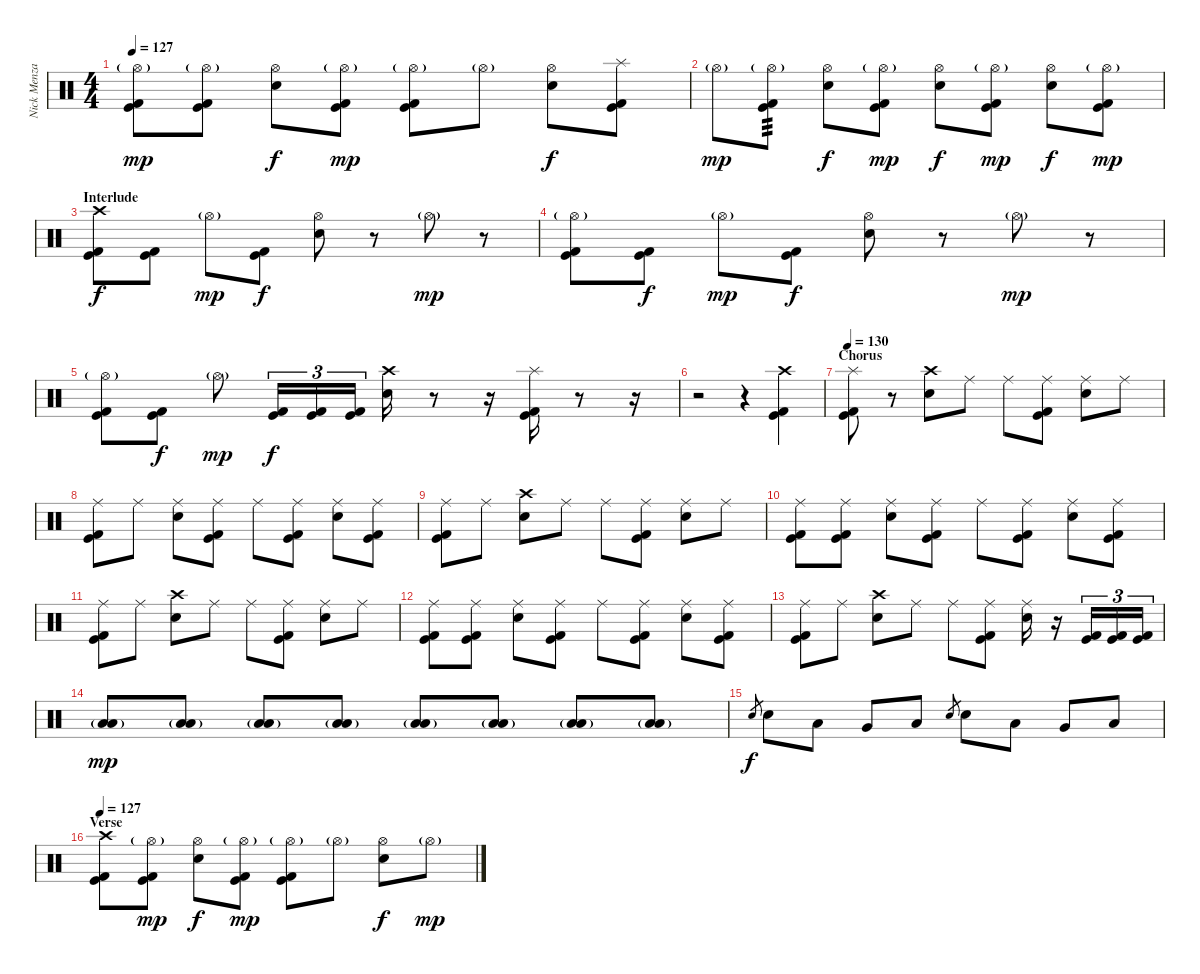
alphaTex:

\track ("Nick Menza (Drums)" "Nick Menza") {instrument percussion}
\staff {score}
\articulation defaults
\ts (4 4)
\tempo 127
\clef neutral
\ks c
("Hi-Hat (open)"{g} "Kick (hit)" "Kick (hit) 2").8{dy mp} ("Hi-Hat (open)"{g} "Kick (hit)" "Kick (hit) 2").8 ("Hi-Hat (open)" "Electric Snare (hit)").8{dy f} ("Hi-Hat (open)"{g} "Kick (hit)" "Kick (hit) 2").8{dy mp} ("Hi-Hat (open)"{g} "Kick (hit)" "Kick (hit) 2").8 "Hi-Hat (open)"{g}.8 ("Hi-Hat (open)" "Electric Snare (hit)").8{dy f} ("Splash (hit)" "Kick (hit)" "Kick (hit) 2").8 |
"Hi-Hat (open)"{g}.8{dy mp} ("Hi-Hat (open)"{g} "Kick (hit)" "Kick (hit) 2").8{tp 3} ("Hi-Hat (open)" "Electric Snare (hit)").8{dy f} ("Hi-Hat (open)"{g} "Kick (hit)" "Kick (hit) 2").8{dy mp} ("Hi-Hat (open)" "Electric Snare (hit)").8{dy f} ("Hi-Hat (open)"{g} "Kick (hit)" "Kick (hit) 2").8{dy mp} ("Hi-Hat (open)" "Electric Snare (hit)").8{dy f} ("Hi-Hat (open)"{g} "Kick (hit)" "Kick (hit) 2").8{dy mp} |
\section ("" "Interlude")
("Crash high (hit)" "Kick (hit)" "Kick (hit) 2").8{dy f} ("Kick (hit)" "Kick (hit) 2").8 "Hi-Hat (open)"{g}.8{dy mp} ("Kick (hit)" "Kick (hit) 2").8{dy f} ("Hi-Hat (open)" "Electric Snare (hit)").8 r.8 "Hi-Hat (open)"{g}.8{dy mp} r.8 |
("Hi-Hat (open)"{g} "Kick (hit)" "Kick (hit) 2").8 ("Kick (hit)" "Kick (hit) 2").8{dy f} "Hi-Hat (open)"{g}.8{dy mp} ("Kick (hit)" "Kick (hit) 2").8{dy f} ("Hi-Hat (open)" "Electric Snare (hit)").8 r.8 "Hi-Hat (open)"{g}.8{dy mp} r.8 |
("Hi-Hat (open)"{g} "Kick (hit)" "Kick (hit) 2").8 ("Kick (hit)" "Kick (hit) 2").8{dy f} "Hi-Hat (open)"{g}.8{dy mp} ("Kick (hit)" "Kick (hit) 2").16{tu (3 2) dy f} ("Kick (hit)" "Kick (hit) 2").16{tu (3 2)} ("Kick (hit)" "Kick (hit) 2").16{tu (3 2)} ("Crash high (hit)" "Electric Snare (hit)").16 r.8 r.16 ("Splash (hit)" "Kick (hit)" "Kick (hit) 2").16 r.8 r.16 |
r.2 r.4 ("Crash high (hit)" "Kick (hit)" "Kick (hit) 2").4 |
\section ("" "Chorus")
\tempo 130
("Splash (hit)" "Kick (hit)" "Kick (hit) 2").8 r.8 ("Crash high (hit)" "Electric Snare (hit)").8 "Ride (middle)".8 "Ride (middle)".8 ("Ride (middle)" "Kick (hit)" "Kick (hit) 2").8 ("Ride (middle)" "Electric Snare (hit)").8 "Ride (middle)".8 |
("Ride (middle)" "Kick (hit)" "Kick (hit) 2").8 "Ride (middle)".8 ("Ride (middle)" "Electric Snare (hit)").8 ("Ride (middle)" "Kick (hit)" "Kick (hit) 2").8 "Ride (middle)".8 ("Ride (middle)" "Kick (hit)" "Kick (hit) 2").8 ("Ride (middle)" "Electric Snare (hit)").8 ("Ride (middle)" "Kick (hit)" "Kick (hit) 2").8 |
("Ride (middle)" "Kick (hit)" "Kick (hit) 2").8 "Ride (middle)".8 ("Crash high (hit)" "Electric Snare (hit)").8 "Ride (middle)".8 "Ride (middle)".8 ("Ride (middle)" "Kick (hit)" "Kick (hit) 2").8 ("Ride (middle)" "Electric Snare (hit)").8 "Ride (middle)".8 |
("Ride (middle)" "Kick (hit)" "Kick (hit) 2").8 ("Ride (middle)" "Kick (hit)" "Kick (hit) 2").8 ("Ride (middle)" "Electric Snare (hit)").8 ("Ride (middle)" "Kick (hit)" "Kick (hit) 2").8 "Ride (middle)".8 ("Ride (middle)" "Kick (hit)" "Kick (hit) 2").8 ("Ride (middle)" "Electric Snare (hit)").8 ("Ride (middle)" "Kick (hit)" "Kick (hit) 2").8 |
("Ride (middle)" "Kick (hit)" "Kick (hit) 2").8 "Ride (middle)".8 ("Crash high (hit)" "Electric Snare (hit)").8 "Ride (middle)".8 "Ride (middle)".8 ("Ride (middle)" "Kick (hit)" "Kick (hit) 2").8 ("Ride (middle)" "Electric Snare (hit)").8 "Ride (middle)".8 |
("Ride (middle)" "Kick (hit)" "Kick (hit) 2").8 ("Ride (middle)" "Kick (hit)" "Kick (hit) 2").8 ("Ride (middle)" "Electric Snare (hit)").8 ("Ride (middle)" "Kick (hit)" "Kick (hit) 2").8 "Ride (middle)".8 ("Ride (middle)" "Kick (hit)" "Kick (hit) 2").8 ("Ride (middle)" "Electric Snare (hit)").8 ("Ride (middle)" "Kick (hit)" "Kick (hit) 2").8 |
("Ride (middle)" "Kick (hit)" "Kick (hit) 2").8 "Ride (middle)".8 ("Crash high (hit)" "Electric Snare (hit)").8 "Ride (middle)".8 "Ride (middle)".8 ("Ride (middle)" "Kick (hit)" "Kick (hit) 2").8 ("Ride (middle)" "Electric Snare (hit)").16 r.16 ("Kick (hit)" "Kick (hit) 2").16{tu (3 2)} ("Kick (hit)" "Kick (hit) 2").16{tu (3 2)} ("Kick (hit)" "Kick (hit) 2").16{tu (3 2)} |
("Low Tom (hit)"{g} "Low Floor Tom (hit)").8{dy mp} ("Low Tom (hit)"{g} "Low Floor Tom (hit)").8 ("Low Tom (hit)"{g} "Low Floor Tom (hit)").8 ("Low Tom (hit)"{g} "Low Floor Tom (hit)").8 ("Low Tom (hit)"{g} "Low Floor Tom (hit)").8 ("Low Tom (hit)"{g} "Low Floor Tom (hit)").8 ("Low Tom (hit)"{g} "Low Floor Tom (hit)").8 ("Low Tom (hit)"{g} "Low Floor Tom (hit)").8 |
"Electric Snare (hit)".8{gr dy f} "Electric Snare (hit)".8 "Low Tom (hit)".8 "Very Low Tom (hit)".8 "Low Floor Tom (hit)".8 "Electric Snare (hit)".8{gr} "Electric Snare (hit)".8 "Low Tom (hit)".8 "Very Low Tom (hit)".8 "Low Floor Tom (hit)".8 |
\section ("" "Verse")
\tempo 127
("Crash high (hit)" "Kick (hit)" "Kick (hit) 2").8 ("Hi-Hat (open)"{g} "Kick (hit)" "Kick (hit) 2").8{dy mp} ("Hi-Hat (open)" "Electric Snare (hit)").8{dy f} ("Hi-Hat (open)"{g} "Kick (hit)" "Kick (hit) 2").8{dy mp} ("Hi-Hat (open)"{g} "Kick (hit)" "Kick (hit) 2").8 "Hi-Hat (open)"{g}.8 ("Hi-Hat (open)" "Electric Snare (hit)").8{dy f} "Hi-Hat (open)"{g}.8{dy mp}
